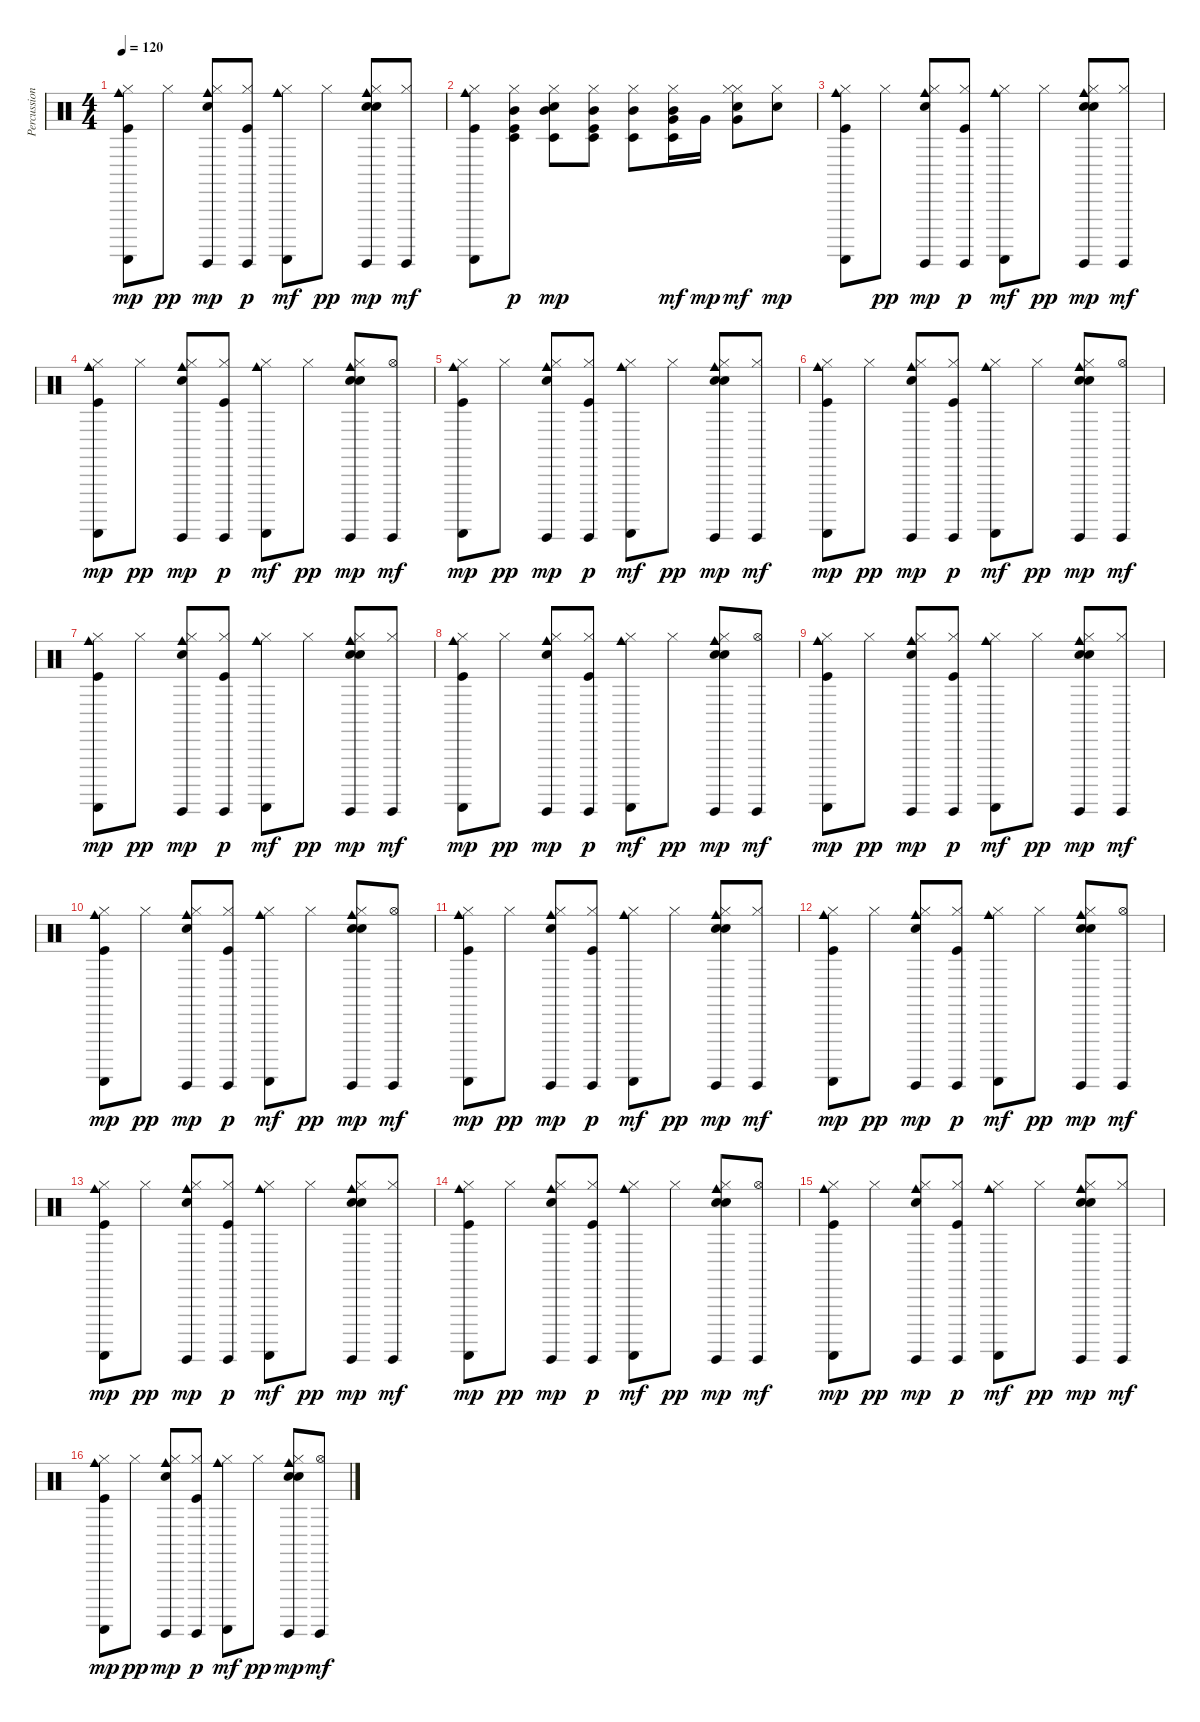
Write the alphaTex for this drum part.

\track ("Percussions" "Percussion") {instrument percussion}
\staff {score}
\articulation defaults
\ts (4 4)
\tempo 120
\clef neutral
\ks c
("Hi-Hat (closed)" "Guiro (scrap-return)" "Cowbell medium (hit)" "Kick (hit)").8{dy mp} "Hi-Hat (closed)".8{dy pp} ("Hi-Hat (closed)" "Guiro (hit)" "Snare (hit) 2" "Cowbell medium (hit)").8{dy mp} ("Hi-Hat (closed)" "Guiro (hit)" "Kick (hit)").8{dy p} ("Hi-Hat (closed)" "Guiro (scrap-return)" "Cowbell medium (hit)").8{dy mf} "Hi-Hat (closed)".8{dy pp} ("Hi-Hat (closed)" "Guiro (hit)" "Snare (hit) 2" "Cowbell medium (hit)" "Hand Clap (hit)").8{dy mp} ("Hi-Hat (closed)" "Guiro (hit)").8{dy mf} |
("Hi-Hat (closed)" "Guiro (scrap-return)" "Cowbell medium (hit)" "Kick (hit)").8 ("Hi-Hat (closed)" "Timbale low (hit)" "Mid Tom (hit)" "Kick (hit)").8{dy p} ("Hi-Hat (closed)" "Timbale low (hit)" "Snare (hit) 2" "Mid Tom (hit)").8{dy mp} ("Hi-Hat (closed)" "Timbale low (hit)" "Mid Tom (hit)" "Kick (hit)").8 ("Hi-Hat (closed)" "Timbale low (hit)" "Mid Tom (hit)").8 ("Hi-Hat (closed)" "Timbale low (hit)" "Mid Tom (hit)" "Very Low Tom (hit)").16{dy mf} "Very Low Tom (hit)".16{dy mp} ("Hi-Hat (closed)" "Hi-Hat (closed)" "Snare (hit) 2" "Very Low Tom (hit)").8{dy mf} ("Hi-Hat (closed)" "Metronome (bell)").8{dy mp} |
("Hi-Hat (closed)" "Guiro (scrap-return)" "Cowbell medium (hit)" "Kick (hit)").8 "Hi-Hat (closed)".8{dy pp} ("Hi-Hat (closed)" "Guiro (hit)" "Snare (hit) 2" "Cowbell medium (hit)").8{dy mp} ("Hi-Hat (closed)" "Guiro (hit)" "Kick (hit)").8{dy p} ("Hi-Hat (closed)" "Guiro (scrap-return)" "Cowbell medium (hit)").8{dy mf} "Hi-Hat (closed)".8{dy pp} ("Hi-Hat (closed)" "Guiro (hit)" "Snare (hit) 2" "Cowbell medium (hit)" "Hand Clap (hit)").8{dy mp} ("Hi-Hat (closed)" "Guiro (hit)").8{dy mf} |
("Hi-Hat (closed)" "Guiro (scrap-return)" "Cowbell medium (hit)" "Kick (hit)").8{dy mp} "Hi-Hat (closed)".8{dy pp} ("Hi-Hat (closed)" "Guiro (hit)" "Snare (hit) 2" "Cowbell medium (hit)").8{dy mp} ("Hi-Hat (closed)" "Guiro (hit)" "Kick (hit)").8{dy p} ("Hi-Hat (closed)" "Guiro (scrap-return)" "Cowbell medium (hit)").8{dy mf} "Hi-Hat (closed)".8{dy pp} ("Hi-Hat (closed)" "Guiro (hit)" "Snare (hit) 2" "Cowbell medium (hit)" "Hand Clap (hit)").8{dy mp} ("Hi-Hat (open)" "Guiro (hit)").8{dy mf} |
("Hi-Hat (closed)" "Guiro (scrap-return)" "Cowbell medium (hit)" "Kick (hit)").8{dy mp} "Hi-Hat (closed)".8{dy pp} ("Hi-Hat (closed)" "Guiro (hit)" "Snare (hit) 2" "Cowbell medium (hit)").8{dy mp} ("Hi-Hat (closed)" "Guiro (hit)" "Kick (hit)").8{dy p} ("Hi-Hat (closed)" "Guiro (scrap-return)" "Cowbell medium (hit)").8{dy mf} "Hi-Hat (closed)".8{dy pp} ("Hi-Hat (closed)" "Guiro (hit)" "Snare (hit) 2" "Cowbell medium (hit)" "Hand Clap (hit)").8{dy mp} ("Hi-Hat (closed)" "Guiro (hit)").8{dy mf} |
("Hi-Hat (closed)" "Guiro (scrap-return)" "Cowbell medium (hit)" "Kick (hit)").8{dy mp} "Hi-Hat (closed)".8{dy pp} ("Hi-Hat (closed)" "Guiro (hit)" "Snare (hit) 2" "Cowbell medium (hit)").8{dy mp} ("Hi-Hat (closed)" "Guiro (hit)" "Kick (hit)").8{dy p} ("Hi-Hat (closed)" "Guiro (scrap-return)" "Cowbell medium (hit)").8{dy mf} "Hi-Hat (closed)".8{dy pp} ("Hi-Hat (closed)" "Guiro (hit)" "Snare (hit) 2" "Cowbell medium (hit)" "Hand Clap (hit)").8{dy mp} ("Hi-Hat (open)" "Guiro (hit)").8{dy mf} |
("Hi-Hat (closed)" "Guiro (scrap-return)" "Cowbell medium (hit)" "Kick (hit)").8{dy mp} "Hi-Hat (closed)".8{dy pp} ("Hi-Hat (closed)" "Guiro (hit)" "Snare (hit) 2" "Cowbell medium (hit)").8{dy mp} ("Hi-Hat (closed)" "Guiro (hit)" "Kick (hit)").8{dy p} ("Hi-Hat (closed)" "Guiro (scrap-return)" "Cowbell medium (hit)").8{dy mf} "Hi-Hat (closed)".8{dy pp} ("Hi-Hat (closed)" "Guiro (hit)" "Snare (hit) 2" "Cowbell medium (hit)" "Hand Clap (hit)").8{dy mp} ("Hi-Hat (closed)" "Guiro (hit)").8{dy mf} |
("Hi-Hat (closed)" "Guiro (scrap-return)" "Cowbell medium (hit)" "Kick (hit)").8{dy mp} "Hi-Hat (closed)".8{dy pp} ("Hi-Hat (closed)" "Guiro (hit)" "Snare (hit) 2" "Cowbell medium (hit)").8{dy mp} ("Hi-Hat (closed)" "Guiro (hit)" "Kick (hit)").8{dy p} ("Hi-Hat (closed)" "Guiro (scrap-return)" "Cowbell medium (hit)").8{dy mf} "Hi-Hat (closed)".8{dy pp} ("Hi-Hat (closed)" "Guiro (hit)" "Snare (hit) 2" "Cowbell medium (hit)" "Hand Clap (hit)").8{dy mp} ("Hi-Hat (open)" "Guiro (hit)").8{dy mf} |
("Hi-Hat (closed)" "Guiro (scrap-return)" "Cowbell medium (hit)" "Kick (hit)").8{dy mp} "Hi-Hat (closed)".8{dy pp} ("Hi-Hat (closed)" "Guiro (hit)" "Snare (hit) 2" "Cowbell medium (hit)").8{dy mp} ("Hi-Hat (closed)" "Guiro (hit)" "Kick (hit)").8{dy p} ("Hi-Hat (closed)" "Guiro (scrap-return)" "Cowbell medium (hit)").8{dy mf} "Hi-Hat (closed)".8{dy pp} ("Hi-Hat (closed)" "Guiro (hit)" "Snare (hit) 2" "Cowbell medium (hit)" "Hand Clap (hit)").8{dy mp} ("Hi-Hat (closed)" "Guiro (hit)").8{dy mf} |
("Hi-Hat (closed)" "Guiro (scrap-return)" "Cowbell medium (hit)" "Kick (hit)").8{dy mp} "Hi-Hat (closed)".8{dy pp} ("Hi-Hat (closed)" "Guiro (hit)" "Snare (hit) 2" "Cowbell medium (hit)").8{dy mp} ("Hi-Hat (closed)" "Guiro (hit)" "Kick (hit)").8{dy p} ("Hi-Hat (closed)" "Guiro (scrap-return)" "Cowbell medium (hit)").8{dy mf} "Hi-Hat (closed)".8{dy pp} ("Hi-Hat (closed)" "Guiro (hit)" "Snare (hit) 2" "Cowbell medium (hit)" "Hand Clap (hit)").8{dy mp} ("Hi-Hat (open)" "Guiro (hit)").8{dy mf} |
("Hi-Hat (closed)" "Guiro (scrap-return)" "Cowbell medium (hit)" "Kick (hit)").8{dy mp} "Hi-Hat (closed)".8{dy pp} ("Hi-Hat (closed)" "Guiro (hit)" "Snare (hit) 2" "Cowbell medium (hit)").8{dy mp} ("Hi-Hat (closed)" "Guiro (hit)" "Kick (hit)").8{dy p} ("Hi-Hat (closed)" "Guiro (scrap-return)" "Cowbell medium (hit)").8{dy mf} "Hi-Hat (closed)".8{dy pp} ("Hi-Hat (closed)" "Guiro (hit)" "Snare (hit) 2" "Cowbell medium (hit)" "Hand Clap (hit)").8{dy mp} ("Hi-Hat (closed)" "Guiro (hit)").8{dy mf} |
("Hi-Hat (closed)" "Guiro (scrap-return)" "Cowbell medium (hit)" "Kick (hit)").8{dy mp} "Hi-Hat (closed)".8{dy pp} ("Hi-Hat (closed)" "Guiro (hit)" "Snare (hit) 2" "Cowbell medium (hit)").8{dy mp} ("Hi-Hat (closed)" "Guiro (hit)" "Kick (hit)").8{dy p} ("Hi-Hat (closed)" "Guiro (scrap-return)" "Cowbell medium (hit)").8{dy mf} "Hi-Hat (closed)".8{dy pp} ("Hi-Hat (closed)" "Guiro (hit)" "Snare (hit) 2" "Cowbell medium (hit)" "Hand Clap (hit)").8{dy mp} ("Hi-Hat (open)" "Guiro (hit)").8{dy mf} |
("Hi-Hat (closed)" "Guiro (scrap-return)" "Cowbell medium (hit)" "Kick (hit)").8{dy mp} "Hi-Hat (closed)".8{dy pp} ("Hi-Hat (closed)" "Guiro (hit)" "Snare (hit) 2" "Cowbell medium (hit)").8{dy mp} ("Hi-Hat (closed)" "Guiro (hit)" "Kick (hit)").8{dy p} ("Hi-Hat (closed)" "Guiro (scrap-return)" "Cowbell medium (hit)").8{dy mf} "Hi-Hat (closed)".8{dy pp} ("Hi-Hat (closed)" "Guiro (hit)" "Snare (hit) 2" "Cowbell medium (hit)" "Hand Clap (hit)").8{dy mp} ("Hi-Hat (closed)" "Guiro (hit)").8{dy mf} |
("Hi-Hat (closed)" "Guiro (scrap-return)" "Cowbell medium (hit)" "Kick (hit)").8{dy mp} "Hi-Hat (closed)".8{dy pp} ("Hi-Hat (closed)" "Guiro (hit)" "Snare (hit) 2" "Cowbell medium (hit)").8{dy mp} ("Hi-Hat (closed)" "Guiro (hit)" "Kick (hit)").8{dy p} ("Hi-Hat (closed)" "Guiro (scrap-return)" "Cowbell medium (hit)").8{dy mf} "Hi-Hat (closed)".8{dy pp} ("Hi-Hat (closed)" "Guiro (hit)" "Snare (hit) 2" "Cowbell medium (hit)" "Hand Clap (hit)").8{dy mp} ("Hi-Hat (open)" "Guiro (hit)").8{dy mf} |
("Hi-Hat (closed)" "Guiro (scrap-return)" "Cowbell medium (hit)" "Kick (hit)").8{dy mp} "Hi-Hat (closed)".8{dy pp} ("Hi-Hat (closed)" "Guiro (hit)" "Snare (hit) 2" "Cowbell medium (hit)").8{dy mp} ("Hi-Hat (closed)" "Guiro (hit)" "Kick (hit)").8{dy p} ("Hi-Hat (closed)" "Guiro (scrap-return)" "Cowbell medium (hit)").8{dy mf} "Hi-Hat (closed)".8{dy pp} ("Hi-Hat (closed)" "Guiro (hit)" "Snare (hit) 2" "Cowbell medium (hit)" "Hand Clap (hit)").8{dy mp} ("Hi-Hat (closed)" "Guiro (hit)").8{dy mf} |
("Hi-Hat (closed)" "Guiro (scrap-return)" "Cowbell medium (hit)" "Kick (hit)").8{dy mp} "Hi-Hat (closed)".8{dy pp} ("Hi-Hat (closed)" "Guiro (hit)" "Snare (hit) 2" "Cowbell medium (hit)").8{dy mp} ("Hi-Hat (closed)" "Guiro (hit)" "Kick (hit)").8{dy p} ("Hi-Hat (closed)" "Guiro (scrap-return)" "Cowbell medium (hit)").8{dy mf} "Hi-Hat (closed)".8{dy pp} ("Hi-Hat (closed)" "Guiro (hit)" "Snare (hit) 2" "Cowbell medium (hit)" "Hand Clap (hit)").8{dy mp} ("Hi-Hat (open)" "Guiro (hit)").8{dy mf}
